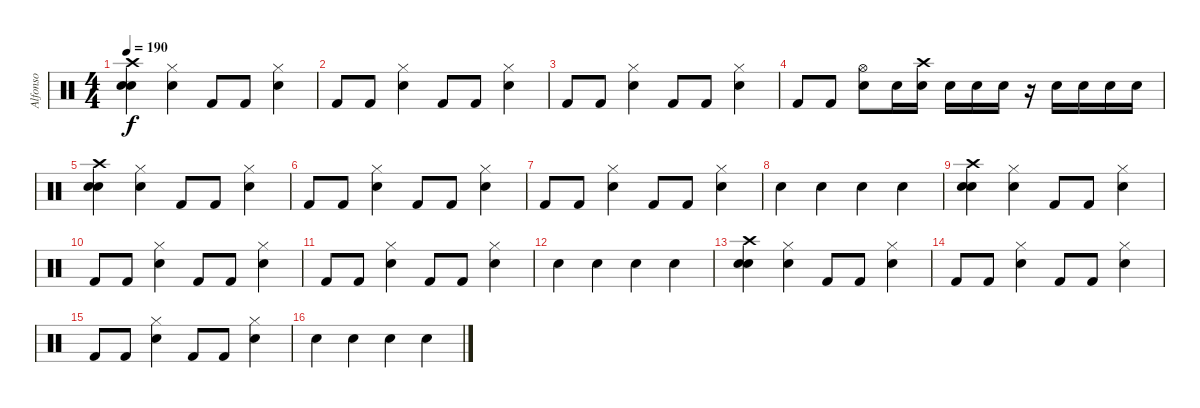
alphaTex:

\track ("Alfonso" "Alfonso") {instrument percussion}
\staff {score}
\articulation defaults
\ts (4 4)
\tempo 190
\clef neutral
\ks c
("Crash high (hit)" "Electric Snare (hit)" "Snare (hit) 2").4{dy f} ("Hi-Hat (closed)" "Electric Snare (hit)").4 "Kick (hit) 2".8 "Kick (hit) 2".8 ("Hi-Hat (closed)" "Electric Snare (hit)").4 |
"Kick (hit) 2".8 "Kick (hit) 2".8 ("Hi-Hat (closed)" "Electric Snare (hit)").4 "Kick (hit) 2".8 "Kick (hit) 2".8 ("Hi-Hat (closed)" "Electric Snare (hit)").4 |
"Kick (hit) 2".8 "Kick (hit) 2".8 ("Hi-Hat (closed)" "Electric Snare (hit)").4 "Kick (hit) 2".8 "Kick (hit) 2".8 ("Hi-Hat (closed)" "Electric Snare (hit)").4 |
"Kick (hit) 2".8 "Kick (hit) 2".8 ("Hi-Hat (open)" "Electric Snare (hit)").8 "Electric Snare (hit)".16 ("Crash high (hit)" "Electric Snare (hit)").16 "Electric Snare (hit)".16 "Electric Snare (hit)".16 "Electric Snare (hit)".16 r.16 "Electric Snare (hit)".16 "Electric Snare (hit)".16 "Electric Snare (hit)".16 "Electric Snare (hit)".16 |
("Crash high (hit)" "Electric Snare (hit)" "Snare (hit) 2").4 ("Hi-Hat (closed)" "Electric Snare (hit)").4 "Kick (hit) 2".8 "Kick (hit) 2".8 ("Hi-Hat (closed)" "Electric Snare (hit)").4 |
"Kick (hit) 2".8 "Kick (hit) 2".8 ("Hi-Hat (closed)" "Electric Snare (hit)").4 "Kick (hit) 2".8 "Kick (hit) 2".8 ("Hi-Hat (closed)" "Electric Snare (hit)").4 |
"Kick (hit) 2".8 "Kick (hit) 2".8 ("Hi-Hat (closed)" "Electric Snare (hit)").4 "Kick (hit) 2".8 "Kick (hit) 2".8 ("Hi-Hat (closed)" "Electric Snare (hit)").4 |
"Electric Snare (hit)".4 "Electric Snare (hit)".4 "Electric Snare (hit)".4 "Electric Snare (hit)".4 |
("Crash high (hit)" "Electric Snare (hit)" "Snare (hit) 2").4 ("Hi-Hat (closed)" "Electric Snare (hit)").4 "Kick (hit) 2".8 "Kick (hit) 2".8 ("Hi-Hat (closed)" "Electric Snare (hit)").4 |
"Kick (hit) 2".8 "Kick (hit) 2".8 ("Hi-Hat (closed)" "Electric Snare (hit)").4 "Kick (hit) 2".8 "Kick (hit) 2".8 ("Hi-Hat (closed)" "Electric Snare (hit)").4 |
"Kick (hit) 2".8 "Kick (hit) 2".8 ("Hi-Hat (closed)" "Electric Snare (hit)").4 "Kick (hit) 2".8 "Kick (hit) 2".8 ("Hi-Hat (closed)" "Electric Snare (hit)").4 |
"Electric Snare (hit)".4 "Electric Snare (hit)".4 "Electric Snare (hit)".4 "Electric Snare (hit)".4 |
("Crash high (hit)" "Electric Snare (hit)" "Snare (hit) 2").4 ("Hi-Hat (closed)" "Electric Snare (hit)").4 "Kick (hit) 2".8 "Kick (hit) 2".8 ("Hi-Hat (closed)" "Electric Snare (hit)").4 |
"Kick (hit) 2".8 "Kick (hit) 2".8 ("Hi-Hat (closed)" "Electric Snare (hit)").4 "Kick (hit) 2".8 "Kick (hit) 2".8 ("Hi-Hat (closed)" "Electric Snare (hit)").4 |
"Kick (hit) 2".8 "Kick (hit) 2".8 ("Hi-Hat (closed)" "Electric Snare (hit)").4 "Kick (hit) 2".8 "Kick (hit) 2".8 ("Hi-Hat (closed)" "Electric Snare (hit)").4 |
"Electric Snare (hit)".4 "Electric Snare (hit)".4 "Electric Snare (hit)".4 "Electric Snare (hit)".4
